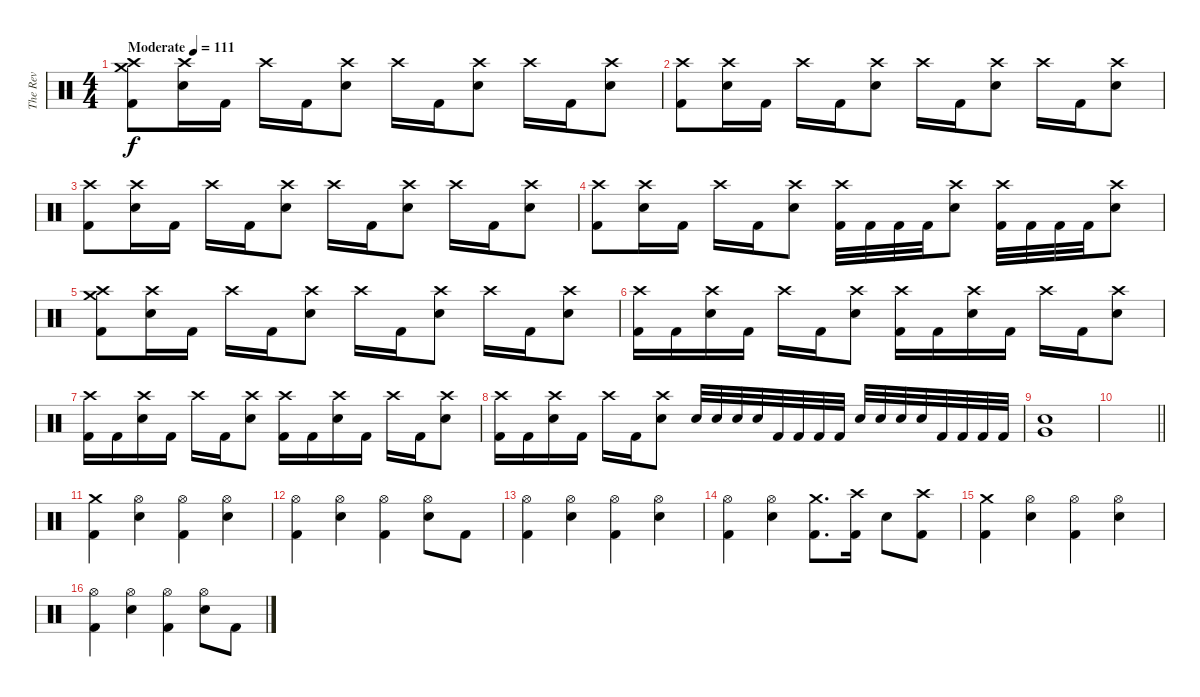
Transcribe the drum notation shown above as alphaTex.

\track ("The Rev" "The Rev") {instrument percussion}
\staff {score}
\articulation defaults
\ts (4 4)
\tempo (111 "Moderate")
\clef neutral
\ks c
("Crash high (hit)" "Crash medium (hit)" "Kick (hit) 2").8{dy f} ("Crash high (hit)" "Snare (hit) 2").16 "Kick (hit) 2".16 "Crash high (hit)".16 "Kick (hit) 2".16 ("Crash high (hit)" "Snare (hit) 2").8 "Crash high (hit)".16 "Kick (hit) 2".16 ("Crash high (hit)" "Snare (hit) 2").8 "Crash high (hit)".16 "Kick (hit) 2".16 ("Crash high (hit)" "Snare (hit) 2").8 |
("Crash high (hit)" "Kick (hit) 2").8 ("Crash high (hit)" "Snare (hit) 2").16 "Kick (hit) 2".16 "Crash high (hit)".16 "Kick (hit) 2".16 ("Crash high (hit)" "Snare (hit) 2").8 "Crash high (hit)".16 "Kick (hit) 2".16 ("Crash high (hit)" "Snare (hit) 2").8 "Crash high (hit)".16 "Kick (hit) 2".16 ("Crash high (hit)" "Snare (hit) 2").8 |
("Crash high (hit)" "Kick (hit) 2").8 ("Crash high (hit)" "Snare (hit) 2").16 "Kick (hit) 2".16 "Crash high (hit)".16 "Kick (hit) 2".16 ("Crash high (hit)" "Snare (hit) 2").8 "Crash high (hit)".16 "Kick (hit) 2".16 ("Crash high (hit)" "Snare (hit) 2").8 "Crash high (hit)".16 "Kick (hit) 2".16 ("Crash high (hit)" "Snare (hit) 2").8 |
("Crash high (hit)" "Kick (hit) 2").8 ("Crash high (hit)" "Snare (hit) 2").16 "Kick (hit) 2".16 "Crash high (hit)".16 "Kick (hit) 2".16 ("Crash high (hit)" "Snare (hit) 2").8 ("Crash high (hit)" "Kick (hit) 2").32 "Kick (hit) 2".32 "Kick (hit) 2".32 "Kick (hit) 2".32 ("Crash high (hit)" "Snare (hit) 2").8 ("Crash high (hit)" "Kick (hit) 2").32 "Kick (hit) 2".32 "Kick (hit) 2".32 "Kick (hit) 2".32 ("Crash high (hit)" "Snare (hit) 2").8 |
("Crash high (hit)" "Crash medium (hit)" "Kick (hit) 2").8 ("Crash high (hit)" "Snare (hit) 2").16 "Kick (hit) 2".16 "Crash high (hit)".16 "Kick (hit) 2".16 ("Crash high (hit)" "Snare (hit) 2").8 "Crash high (hit)".16 "Kick (hit) 2".16 ("Crash high (hit)" "Snare (hit) 2").8 "Crash high (hit)".16 "Kick (hit) 2".16 ("Crash high (hit)" "Snare (hit) 2").8 |
("Crash high (hit)" "Kick (hit) 2").16 "Kick (hit) 2".16 ("Crash high (hit)" "Snare (hit) 2").16 "Kick (hit) 2".16 "Crash high (hit)".16 "Kick (hit) 2".16 ("Crash high (hit)" "Snare (hit) 2").8 ("Crash high (hit)" "Kick (hit) 2").16 "Kick (hit) 2".16 ("Crash high (hit)" "Snare (hit) 2").16 "Kick (hit) 2".16 "Crash high (hit)".16 "Kick (hit) 2".16 ("Crash high (hit)" "Snare (hit) 2").8 |
("Crash high (hit)" "Kick (hit) 2").16 "Kick (hit) 2".16 ("Crash high (hit)" "Snare (hit) 2").16 "Kick (hit) 2".16 "Crash high (hit)".16 "Kick (hit) 2".16 ("Crash high (hit)" "Snare (hit) 2").8 ("Crash high (hit)" "Kick (hit) 2").16 "Kick (hit) 2".16 ("Crash high (hit)" "Snare (hit) 2").16 "Kick (hit) 2".16 "Crash high (hit)".16 "Kick (hit) 2".16 ("Crash high (hit)" "Snare (hit) 2").8 |
("Crash high (hit)" "Kick (hit) 2").16 "Kick (hit) 2".16 ("Crash high (hit)" "Snare (hit) 2").16 "Kick (hit) 2".16 "Crash high (hit)".16 "Kick (hit) 2".16 ("Crash high (hit)" "Snare (hit) 2").8 "Snare (hit) 2".32 "Snare (hit) 2".32 "Snare (hit) 2".32 "Snare (hit) 2".32 "Kick (hit) 2".32 "Kick (hit) 2".32 "Kick (hit) 2".32 "Kick (hit) 2".32 "Snare (hit) 2".32 "Snare (hit) 2".32 "Snare (hit) 2".32 "Snare (hit) 2".32 "Kick (hit) 2".32 "Kick (hit) 2".32 "Kick (hit) 2".32 "Kick (hit) 2".32 |
("Snare (hit) 2" "Very Low Tom (hit)").1 |
\barLineRight lightlight
|
("Crash medium (hit)" "Kick (hit) 2").4 ("Hi-Hat (open)" "Snare (hit) 2").4 ("Hi-Hat (open)" "Kick (hit) 2").4 ("Hi-Hat (open)" "Snare (hit) 2").4 |
("Hi-Hat (open)" "Kick (hit) 2").4 ("Hi-Hat (open)" "Snare (hit) 2").4 ("Hi-Hat (open)" "Kick (hit) 2").4 ("Hi-Hat (open)" "Snare (hit) 2").8 "Kick (hit) 2".8 |
("Hi-Hat (open)" "Kick (hit) 2").4 ("Hi-Hat (open)" "Snare (hit) 2").4 ("Hi-Hat (open)" "Kick (hit) 2").4 ("Hi-Hat (open)" "Snare (hit) 2").4 |
("Hi-Hat (open)" "Kick (hit) 2").4 ("Hi-Hat (open)" "Snare (hit) 2").4 ("Crash medium (hit)" "Kick (hit) 2").8{d} ("Crash high (hit)" "Kick (hit) 2").16 "Snare (hit) 2".8 ("Crash high (hit)" "Kick (hit) 2").8 |
("Crash medium (hit)" "Kick (hit) 2").4 ("Hi-Hat (open)" "Snare (hit) 2").4 ("Hi-Hat (open)" "Kick (hit) 2").4 ("Hi-Hat (open)" "Snare (hit) 2").4 |
("Hi-Hat (open)" "Kick (hit) 2").4 ("Hi-Hat (open)" "Snare (hit) 2").4 ("Hi-Hat (open)" "Kick (hit) 2").4 ("Hi-Hat (open)" "Snare (hit) 2").8 "Kick (hit) 2".8
